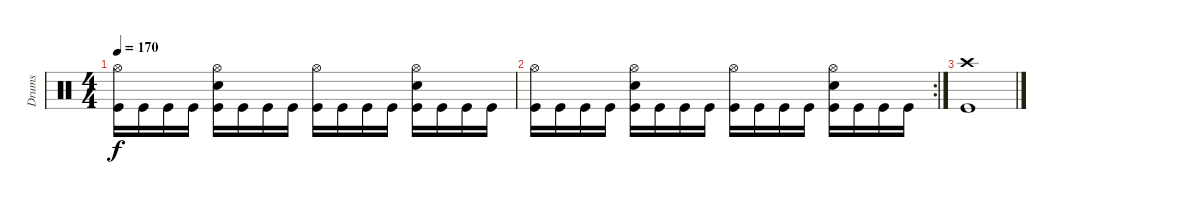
\track ("Drums" "Drums") {instrument percussion}
\staff {score}
\articulation defaults
\ts (4 4)
\tempo 170
\clef neutral
\ks c
("Hi-Hat (open)" "Kick (hit)").16{dy f} "Kick (hit)".16 "Kick (hit)".16 "Kick (hit)".16 ("Hi-Hat (open)" "Snare (hit) 2" "Kick (hit)").16 "Kick (hit)".16 "Kick (hit)".16 "Kick (hit)".16 ("Hi-Hat (open)" "Kick (hit)").16 "Kick (hit)".16 "Kick (hit)".16 "Kick (hit)".16 ("Hi-Hat (open)" "Snare (hit) 2" "Kick (hit)").16 "Kick (hit)".16 "Kick (hit)".16 "Kick (hit)".16 |
\rc 2
("Hi-Hat (open)" "Kick (hit)").16 "Kick (hit)".16 "Kick (hit)".16 "Kick (hit)".16 ("Hi-Hat (open)" "Snare (hit) 2" "Kick (hit)").16 "Kick (hit)".16 "Kick (hit)".16 "Kick (hit)".16 ("Hi-Hat (open)" "Kick (hit)").16 "Kick (hit)".16 "Kick (hit)".16 "Kick (hit)".16 ("Hi-Hat (open)" "Snare (hit) 2" "Kick (hit)").16 "Kick (hit)".16 "Kick (hit)".16 "Kick (hit)".16 |
("Crash high (hit)" "Kick (hit)").1
